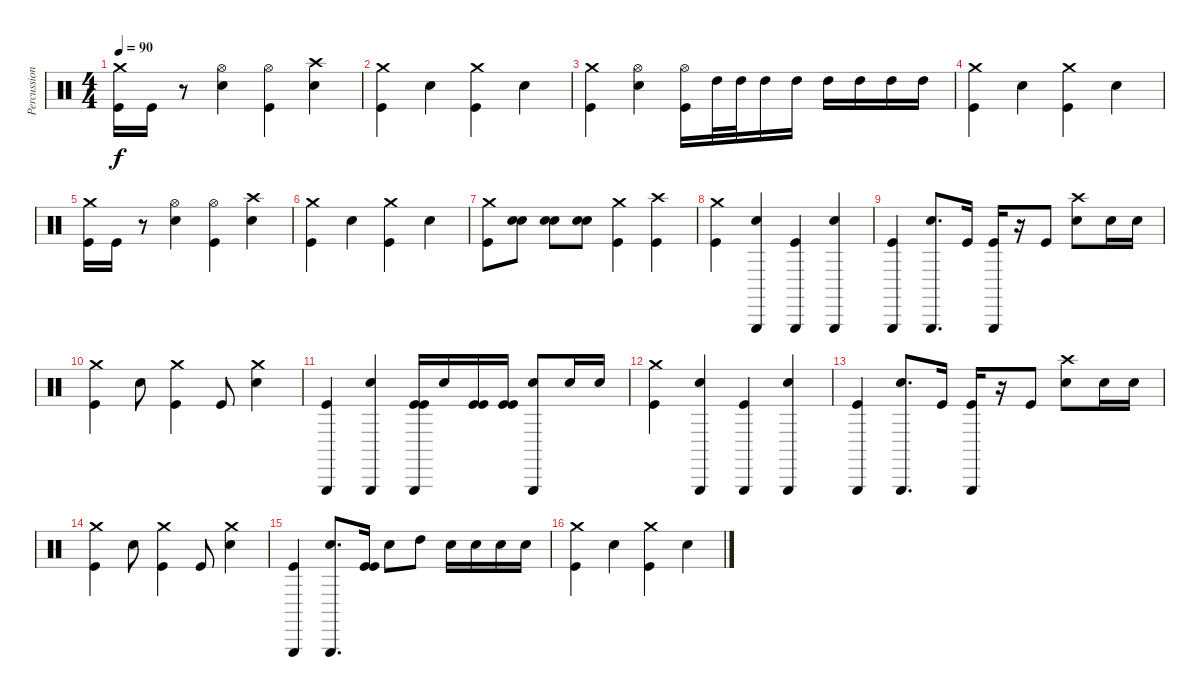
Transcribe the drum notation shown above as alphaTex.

\track ("Percussion" "Percussion") {instrument percussion}
\staff {score}
\articulation defaults
\ts (4 4)
\tempo 90
\clef neutral
\ks c
("Crash medium (hit)" "Kick (hit)").16{dy f} "Kick (hit)".16 r.8 ("Hi-Hat (open)" "Snare (hit) 2").4 ("Hi-Hat (open)" "Kick (hit)").4 ("Crash high (hit)" "Snare (hit) 2").4 |
("Crash medium (hit)" "Kick (hit)").4 "Snare (hit) 2".4 ("Crash medium (hit)" "Kick (hit)").4 "Snare (hit) 2".4 |
("Crash medium (hit)" "Kick (hit)").4 ("Hi-Hat (open)" "Snare (hit) 2").4 ("Hi-Hat (open)" "Kick (hit)").16 "High Tom (hit)".32 "High Tom (hit)".32 "High Tom (hit)".16 "High Tom (hit)".16 "High Tom (hit)".16 "High Tom (hit)".16 "High Tom (hit)".16 "High Tom (hit)".16 |
("Crash medium (hit)" "Kick (hit)").4 "Snare (hit) 2".4 ("Crash medium (hit)" "Kick (hit)").4 "Snare (hit) 2".4 |
("Crash medium (hit)" "Kick (hit)").16 "Kick (hit)".16 r.8 ("Hi-Hat (open)" "Snare (hit) 2").4 ("Hi-Hat (open)" "Kick (hit)").4 ("Crash high (hit)" "Snare (hit) 2").4 |
("Crash medium (hit)" "Kick (hit)").4 "Snare (hit) 2".4 ("Crash medium (hit)" "Kick (hit)").4 "Snare (hit) 2".4 |
("Crash medium (hit)" "Kick (hit)").8 ("Snare (hit) 2" "Snare (hit) 2").8 ("Snare (hit) 2" "Snare (hit) 2").8 ("Snare (hit) 2" "Snare (hit) 2").8 ("Crash medium (hit)" "Kick (hit)").4 ("Crash high (hit)" "Kick (hit)").4 |
("Crash medium (hit)" "Kick (hit)").4 ("Triangle (hit)" "Snare (hit) 2").4 ("Triangle (hit)" "Kick (hit)").4 ("Triangle (hit)" "Snare (hit) 2").4 |
("Triangle (hit)" "Kick (hit)").4 ("Triangle (hit)" "Snare (hit) 2").8{d} "Kick (hit)".16 ("Triangle (hit)" "Kick (hit)").16 r.16 "Kick (hit)".8 ("Crash high (hit)" "Snare (hit) 2").8 "Snare (hit) 2".16 "Snare (hit) 2".16 |
("Crash medium (hit)" "Kick (hit)").4 "Snare (hit) 2".8 ("Crash medium (hit)" "Kick (hit)").4 "Kick (hit)".8 ("Crash medium (hit)" "Snare (hit) 2").4 |
("Triangle (hit)" "Kick (hit)").4 ("Triangle (hit)" "Snare (hit) 2").4 ("Triangle (hit)" "Kick (hit)" "Kick (hit)").16 "Snare (hit) 2".16 ("Kick (hit)" "Kick (hit)").16 ("Kick (hit)" "Kick (hit)").16 ("Triangle (hit)" "Snare (hit) 2").8 "Snare (hit) 2".16 "Snare (hit) 2".16 |
("Crash medium (hit)" "Kick (hit)").4 ("Triangle (hit)" "Snare (hit) 2").4 ("Triangle (hit)" "Kick (hit)").4 ("Triangle (hit)" "Snare (hit) 2").4 |
("Triangle (hit)" "Kick (hit)").4 ("Triangle (hit)" "Snare (hit) 2").8{d} "Kick (hit)".16 ("Triangle (hit)" "Kick (hit)").16 r.16 "Kick (hit)".8 ("Crash high (hit)" "Snare (hit) 2").8 "Snare (hit) 2".16 "Snare (hit) 2".16 |
("Crash medium (hit)" "Kick (hit)").4 "Snare (hit) 2".8 ("Crash medium (hit)" "Kick (hit)").4 "Kick (hit)".8 ("Crash medium (hit)" "Snare (hit) 2").4 |
("Triangle (hit)" "Kick (hit)").4 ("Triangle (hit)" "Snare (hit) 2").8{d} ("Kick (hit)" "Kick (hit)").16 "Snare (hit) 2".8 "High Tom (hit)".8 "Snare (hit) 2".16 "Snare (hit) 2".16 "Snare (hit) 2".16 "Snare (hit) 2".16 |
("Crash medium (hit)" "Kick (hit)").4 "Snare (hit) 2".4 ("Crash medium (hit)" "Kick (hit)").4 "Snare (hit) 2".4
